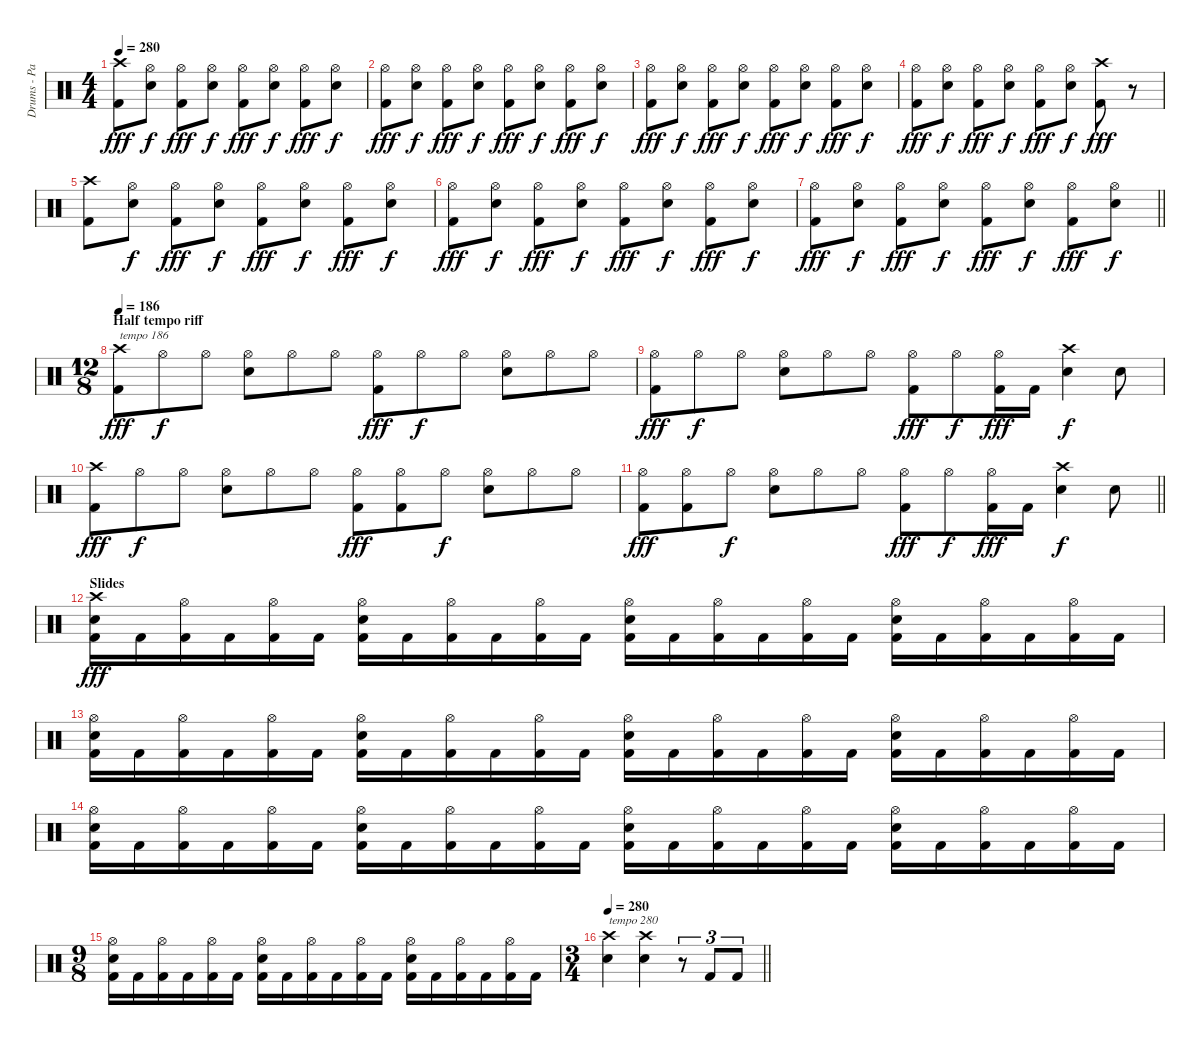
\track ("Drums - Paul Mazurkiewicz" "Drums - Pa") {instrument percussion}
\staff {score}
\articulation defaults
\ts (4 4)
\tempo 280
\clef neutral
\ks c
("Crash high (hit)" "Kick (hit) 2").8{dy fff} ("Hi-Hat (open)" "Snare (hit) 2").8{dy f} ("Hi-Hat (open)" "Kick (hit) 2").8{dy fff} ("Hi-Hat (open)" "Snare (hit) 2").8{dy f} ("Hi-Hat (open)" "Kick (hit) 2").8{dy fff} ("Hi-Hat (open)" "Snare (hit) 2").8{dy f} ("Hi-Hat (open)" "Kick (hit) 2").8{dy fff} ("Hi-Hat (open)" "Snare (hit) 2").8{dy f} |
("Hi-Hat (open)" "Kick (hit) 2").8{dy fff} ("Hi-Hat (open)" "Snare (hit) 2").8{dy f} ("Hi-Hat (open)" "Kick (hit) 2").8{dy fff} ("Hi-Hat (open)" "Snare (hit) 2").8{dy f} ("Hi-Hat (open)" "Kick (hit) 2").8{dy fff} ("Hi-Hat (open)" "Snare (hit) 2").8{dy f} ("Hi-Hat (open)" "Kick (hit) 2").8{dy fff} ("Hi-Hat (open)" "Snare (hit) 2").8{dy f} |
("Hi-Hat (open)" "Kick (hit) 2").8{dy fff} ("Hi-Hat (open)" "Snare (hit) 2").8{dy f} ("Hi-Hat (open)" "Kick (hit) 2").8{dy fff} ("Hi-Hat (open)" "Snare (hit) 2").8{dy f} ("Hi-Hat (open)" "Kick (hit) 2").8{dy fff} ("Hi-Hat (open)" "Snare (hit) 2").8{dy f} ("Hi-Hat (open)" "Kick (hit) 2").8{dy fff} ("Hi-Hat (open)" "Snare (hit) 2").8{dy f} |
("Hi-Hat (open)" "Kick (hit) 2").8{dy fff} ("Hi-Hat (open)" "Snare (hit) 2").8{dy f} ("Hi-Hat (open)" "Kick (hit) 2").8{dy fff} ("Hi-Hat (open)" "Snare (hit) 2").8{dy f} ("Hi-Hat (open)" "Kick (hit) 2").8{dy fff} ("Hi-Hat (open)" "Snare (hit) 2").8{dy f} ("Crash high (hit)" "Kick (hit) 2").8{dy fff} r.8 |
("Crash high (hit)" "Kick (hit) 2").8 ("Hi-Hat (open)" "Snare (hit) 2").8{dy f} ("Hi-Hat (open)" "Kick (hit) 2").8{dy fff} ("Hi-Hat (open)" "Snare (hit) 2").8{dy f} ("Hi-Hat (open)" "Kick (hit) 2").8{dy fff} ("Hi-Hat (open)" "Snare (hit) 2").8{dy f} ("Hi-Hat (open)" "Kick (hit) 2").8{dy fff} ("Hi-Hat (open)" "Snare (hit) 2").8{dy f} |
("Hi-Hat (open)" "Kick (hit) 2").8{dy fff} ("Hi-Hat (open)" "Snare (hit) 2").8{dy f} ("Hi-Hat (open)" "Kick (hit) 2").8{dy fff} ("Hi-Hat (open)" "Snare (hit) 2").8{dy f} ("Hi-Hat (open)" "Kick (hit) 2").8{dy fff} ("Hi-Hat (open)" "Snare (hit) 2").8{dy f} ("Hi-Hat (open)" "Kick (hit) 2").8{dy fff} ("Hi-Hat (open)" "Snare (hit) 2").8{dy f} |
\barLineRight lightlight
("Hi-Hat (open)" "Kick (hit) 2").8{dy fff} ("Hi-Hat (open)" "Snare (hit) 2").8{dy f} ("Hi-Hat (open)" "Kick (hit) 2").8{dy fff} ("Hi-Hat (open)" "Snare (hit) 2").8{dy f} ("Hi-Hat (open)" "Kick (hit) 2").8{dy fff} ("Hi-Hat (open)" "Snare (hit) 2").8{dy f} ("Hi-Hat (open)" "Kick (hit) 2").8{dy fff} ("Hi-Hat (open)" "Snare (hit) 2").8{dy f} |
\ts (12 8)
\section ("" "Half tempo riff")
\tempo 186
("Crash high (hit)" "Kick (hit) 2").8{txt "tempo 186" dy fff} "Hi-Hat (open)".8{dy f} "Hi-Hat (open)".8 ("Hi-Hat (open)" "Snare (hit) 2").8 "Hi-Hat (open)".8 "Hi-Hat (open)".8 ("Hi-Hat (open)" "Kick (hit) 2").8{dy fff} "Hi-Hat (open)".8{dy f} "Hi-Hat (open)".8 ("Hi-Hat (open)" "Snare (hit) 2").8 "Hi-Hat (open)".8 "Hi-Hat (open)".8 |
("Hi-Hat (open)" "Kick (hit) 2").8{dy fff} "Hi-Hat (open)".8{dy f} "Hi-Hat (open)".8 ("Hi-Hat (open)" "Snare (hit) 2").8 "Hi-Hat (open)".8 "Hi-Hat (open)".8 ("Hi-Hat (open)" "Kick (hit) 2").8{dy fff} "Hi-Hat (open)".8{dy f} ("Hi-Hat (open)" "Kick (hit) 2").16{dy fff} "Kick (hit) 2".16 ("Crash high (hit)" "Snare (hit) 2").4{dy f} "Snare (hit) 2".8 |
("Crash high (hit)" "Kick (hit) 2").8{dy fff} "Hi-Hat (open)".8{dy f} "Hi-Hat (open)".8 ("Hi-Hat (open)" "Snare (hit) 2").8 "Hi-Hat (open)".8 "Hi-Hat (open)".8 ("Hi-Hat (open)" "Kick (hit) 2").8{dy fff} ("Hi-Hat (open)" "Kick (hit) 2").8 "Hi-Hat (open)".8{dy f} ("Hi-Hat (open)" "Snare (hit) 2").8 "Hi-Hat (open)".8 "Hi-Hat (open)".8 |
\barLineRight lightlight
("Hi-Hat (open)" "Kick (hit) 2").8{dy fff} ("Hi-Hat (open)" "Kick (hit) 2").8 "Hi-Hat (open)".8{dy f} ("Hi-Hat (open)" "Snare (hit) 2").8 "Hi-Hat (open)".8 "Hi-Hat (open)".8 ("Hi-Hat (open)" "Kick (hit) 2").8{dy fff} "Hi-Hat (open)".8{dy f} ("Hi-Hat (open)" "Kick (hit) 2").16{dy fff} "Kick (hit) 2".16 ("Crash high (hit)" "Snare (hit) 2").4{dy f} "Snare (hit) 2".8 |
\section ("" "Slides")
("Crash high (hit)" "Snare (hit) 2" "Kick (hit) 2").16{dy fff} "Kick (hit) 2".16 ("Hi-Hat (open)" "Kick (hit) 2").16 "Kick (hit) 2".16 ("Hi-Hat (open)" "Kick (hit) 2").16 "Kick (hit) 2".16 ("Hi-Hat (open)" "Snare (hit) 2" "Kick (hit) 2").16 "Kick (hit) 2".16 ("Hi-Hat (open)" "Kick (hit) 2").16 "Kick (hit) 2".16 ("Hi-Hat (open)" "Kick (hit) 2").16 "Kick (hit) 2".16 ("Hi-Hat (open)" "Snare (hit) 2" "Kick (hit) 2").16 "Kick (hit) 2".16 ("Hi-Hat (open)" "Kick (hit) 2").16 "Kick (hit) 2".16 ("Hi-Hat (open)" "Kick (hit) 2").16 "Kick (hit) 2".16 ("Hi-Hat (open)" "Snare (hit) 2" "Kick (hit) 2").16 "Kick (hit) 2".16 ("Hi-Hat (open)" "Kick (hit) 2").16 "Kick (hit) 2".16 ("Hi-Hat (open)" "Kick (hit) 2").16 "Kick (hit) 2".16 |
("Hi-Hat (open)" "Snare (hit) 2" "Kick (hit) 2").16 "Kick (hit) 2".16 ("Hi-Hat (open)" "Kick (hit) 2").16 "Kick (hit) 2".16 ("Hi-Hat (open)" "Kick (hit) 2").16 "Kick (hit) 2".16 ("Hi-Hat (open)" "Snare (hit) 2" "Kick (hit) 2").16 "Kick (hit) 2".16 ("Hi-Hat (open)" "Kick (hit) 2").16 "Kick (hit) 2".16 ("Hi-Hat (open)" "Kick (hit) 2").16 "Kick (hit) 2".16 ("Hi-Hat (open)" "Snare (hit) 2" "Kick (hit) 2").16 "Kick (hit) 2".16 ("Hi-Hat (open)" "Kick (hit) 2").16 "Kick (hit) 2".16 ("Hi-Hat (open)" "Kick (hit) 2").16 "Kick (hit) 2".16 ("Hi-Hat (open)" "Snare (hit) 2" "Kick (hit) 2").16 "Kick (hit) 2".16 ("Hi-Hat (open)" "Kick (hit) 2").16 "Kick (hit) 2".16 ("Hi-Hat (open)" "Kick (hit) 2").16 "Kick (hit) 2".16 |
("Hi-Hat (open)" "Snare (hit) 2" "Kick (hit) 2").16 "Kick (hit) 2".16 ("Hi-Hat (open)" "Kick (hit) 2").16 "Kick (hit) 2".16 ("Hi-Hat (open)" "Kick (hit) 2").16 "Kick (hit) 2".16 ("Hi-Hat (open)" "Snare (hit) 2" "Kick (hit) 2").16 "Kick (hit) 2".16 ("Hi-Hat (open)" "Kick (hit) 2").16 "Kick (hit) 2".16 ("Hi-Hat (open)" "Kick (hit) 2").16 "Kick (hit) 2".16 ("Hi-Hat (open)" "Snare (hit) 2" "Kick (hit) 2").16 "Kick (hit) 2".16 ("Hi-Hat (open)" "Kick (hit) 2").16 "Kick (hit) 2".16 ("Hi-Hat (open)" "Kick (hit) 2").16 "Kick (hit) 2".16 ("Hi-Hat (open)" "Snare (hit) 2" "Kick (hit) 2").16 "Kick (hit) 2".16 ("Hi-Hat (open)" "Kick (hit) 2").16 "Kick (hit) 2".16 ("Hi-Hat (open)" "Kick (hit) 2").16 "Kick (hit) 2".16 |
\ts (9 8)
("Hi-Hat (open)" "Snare (hit) 2" "Kick (hit) 2").16 "Kick (hit) 2".16 ("Hi-Hat (open)" "Kick (hit) 2").16 "Kick (hit) 2".16 ("Hi-Hat (open)" "Kick (hit) 2").16 "Kick (hit) 2".16 ("Hi-Hat (open)" "Snare (hit) 2" "Kick (hit) 2").16 "Kick (hit) 2".16 ("Hi-Hat (open)" "Kick (hit) 2").16 "Kick (hit) 2".16 ("Hi-Hat (open)" "Kick (hit) 2").16 "Kick (hit) 2".16 ("Hi-Hat (open)" "Snare (hit) 2" "Kick (hit) 2").16 "Kick (hit) 2".16 ("Hi-Hat (open)" "Kick (hit) 2").16 "Kick (hit) 2".16 ("Hi-Hat (open)" "Kick (hit) 2").16 "Kick (hit) 2".16 |
\ts (3 4)
\tempo 280
\barLineRight lightlight
("Crash high (hit)" "Snare (hit) 2").4{txt "tempo 280"} ("Crash high (hit)" "Snare (hit) 2").4 r.8{tu (3 2)} "Kick (hit) 2".8{tu (3 2)} "Kick (hit) 2".8{tu (3 2)}
